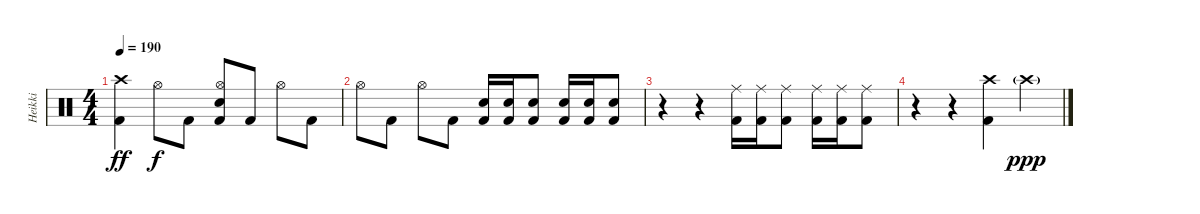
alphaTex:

\track ("Heikki" "Heikki") {instrument percussion}
\staff {score}
\articulation defaults
\ts (4 4)
\tempo 190
\clef neutral
\ks c
("Crash high (hit)" "Kick (hit) 2").4{dy ff} "Hi-Hat (open)".8{dy f} "Kick (hit) 2".8 ("Hi-Hat (open)" "Electric Snare (hit)" "Kick (hit) 2").8 "Kick (hit) 2".8 "Hi-Hat (open)".8 "Kick (hit) 2".8 |
"Hi-Hat (open)".8 "Kick (hit) 2".8 "Hi-Hat (open)".8 "Kick (hit) 2".8 ("Electric Snare (hit)" "Kick (hit) 2").16 ("Electric Snare (hit)" "Kick (hit) 2").16 ("Electric Snare (hit)" "Kick (hit) 2").8 ("Electric Snare (hit)" "Kick (hit) 2").16 ("Electric Snare (hit)" "Kick (hit) 2").16 ("Electric Snare (hit)" "Kick (hit) 2").8 |
r.4 r.4 ("Ride (middle)" "Kick (hit) 2").16 ("Ride (middle)" "Kick (hit) 2").16 ("Ride (middle)" "Kick (hit) 2").8 ("Ride (middle)" "Kick (hit) 2").16 ("Ride (middle)" "Kick (hit) 2").16 ("Ride (middle)" "Kick (hit) 2").8 |
r.4 r.4 ("Crash high (hit)"{pm} "Kick (hit) 2").4 "Crash high (hit)"{g}.4{dy ppp}
